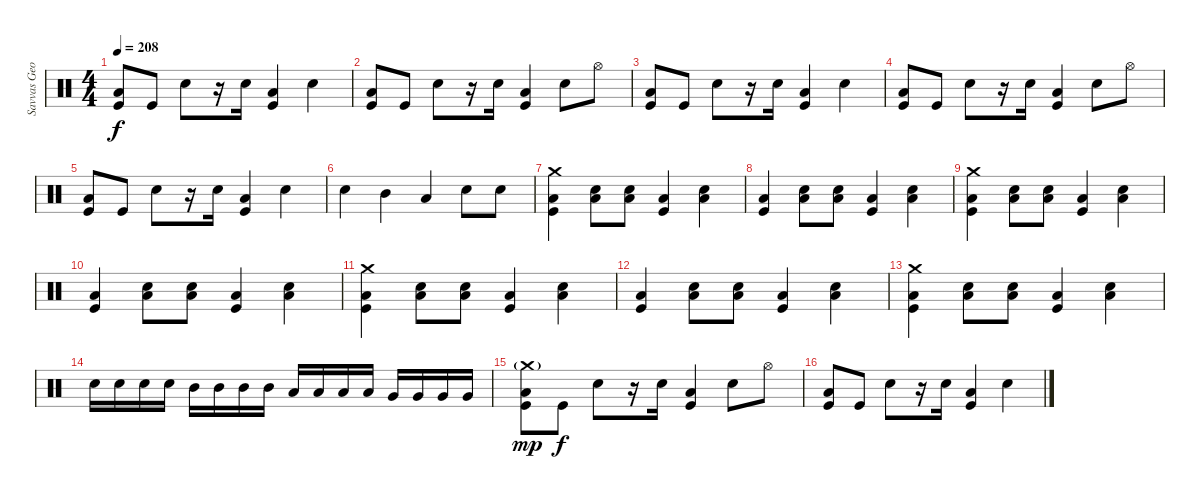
\track ("Savvas Georgiadis" "Savvas Geo") {instrument percussion}
\staff {score}
\articulation defaults
\ts (4 4)
\tempo 208
\clef neutral
\ks c
("Low Tom (hit)" "Kick (hit)").8{dy f} "Kick (hit)".8 "Electric Snare (hit)".8 r.16 "Electric Snare (hit)".16 ("Low Tom (hit)" "Kick (hit)").4 "Electric Snare (hit)".4 |
("Low Tom (hit)" "Kick (hit)").8 "Kick (hit)".8 "Electric Snare (hit)".8 r.16 "Electric Snare (hit)".16 ("Low Tom (hit)" "Kick (hit)").4 "Electric Snare (hit)".8 "Hi-Hat (open)".8 |
("Low Tom (hit)" "Kick (hit)").8 "Kick (hit)".8 "Electric Snare (hit)".8 r.16 "Electric Snare (hit)".16 ("Low Tom (hit)" "Kick (hit)").4 "Electric Snare (hit)".4 |
("Low Tom (hit)" "Kick (hit)").8 "Kick (hit)".8 "Electric Snare (hit)".8 r.16 "Electric Snare (hit)".16 ("Low Tom (hit)" "Kick (hit)").4 "Electric Snare (hit)".8 "Hi-Hat (open)".8 |
("Low Tom (hit)" "Kick (hit)").8 "Kick (hit)".8 "Electric Snare (hit)".8 r.16 "Electric Snare (hit)".16 ("Low Tom (hit)" "Kick (hit)").4 "Electric Snare (hit)".4 |
"Electric Snare (hit)".4 "Mid Tom (hit)".4 "Low Tom (hit)".4 "Electric Snare (hit)".8 "Electric Snare (hit)".8 |
("Crash medium (hit)" "Low Tom (hit)" "Kick (hit)").4 ("Electric Snare (hit)" "Low Tom (hit)").8 ("Electric Snare (hit)" "Low Tom (hit)").8 ("Low Tom (hit)" "Kick (hit)").4 ("Electric Snare (hit)" "Low Tom (hit)").4 |
("Low Tom (hit)" "Kick (hit)").4 ("Electric Snare (hit)" "Low Tom (hit)").8 ("Electric Snare (hit)" "Low Tom (hit)").8 ("Low Tom (hit)" "Kick (hit)").4 ("Electric Snare (hit)" "Low Tom (hit)").4 |
("Crash medium (hit)" "Low Tom (hit)" "Kick (hit)").4 ("Electric Snare (hit)" "Low Tom (hit)").8 ("Electric Snare (hit)" "Low Tom (hit)").8 ("Low Tom (hit)" "Kick (hit)").4 ("Electric Snare (hit)" "Low Tom (hit)").4 |
("Low Tom (hit)" "Kick (hit)").4 ("Electric Snare (hit)" "Low Tom (hit)").8 ("Electric Snare (hit)" "Low Tom (hit)").8 ("Low Tom (hit)" "Kick (hit)").4 ("Electric Snare (hit)" "Low Tom (hit)").4 |
("Crash medium (hit)" "Low Tom (hit)" "Kick (hit)").4 ("Electric Snare (hit)" "Low Tom (hit)").8 ("Electric Snare (hit)" "Low Tom (hit)").8 ("Low Tom (hit)" "Kick (hit)").4 ("Electric Snare (hit)" "Low Tom (hit)").4 |
("Low Tom (hit)" "Kick (hit)").4 ("Electric Snare (hit)" "Low Tom (hit)").8 ("Electric Snare (hit)" "Low Tom (hit)").8 ("Low Tom (hit)" "Kick (hit)").4 ("Electric Snare (hit)" "Low Tom (hit)").4 |
("Crash medium (hit)" "Low Tom (hit)" "Kick (hit)").4 ("Electric Snare (hit)" "Low Tom (hit)").8 ("Electric Snare (hit)" "Low Tom (hit)").8 ("Low Tom (hit)" "Kick (hit)").4 ("Electric Snare (hit)" "Low Tom (hit)").4 |
"Electric Snare (hit)".16 "Electric Snare (hit)".16 "Electric Snare (hit)".16 "Electric Snare (hit)".16 "Mid Tom (hit)".16 "Mid Tom (hit)".16 "Mid Tom (hit)".16 "Mid Tom (hit)".16 "Low Tom (hit)".16 "Low Tom (hit)".16 "Low Tom (hit)".16 "Low Tom (hit)".16 "Very Low Tom (hit)".16 "Very Low Tom (hit)".16 "Very Low Tom (hit)".16 "Very Low Tom (hit)".16 |
("Crash medium (hit)"{g} "Low Tom (hit)" "Kick (hit)").8{dy mp} "Kick (hit)".8{dy f} "Electric Snare (hit)".8 r.16 "Electric Snare (hit)".16 ("Low Tom (hit)" "Kick (hit)").4 "Electric Snare (hit)".8 "Hi-Hat (open)".8 |
("Low Tom (hit)" "Kick (hit)").8 "Kick (hit)".8 "Electric Snare (hit)".8 r.16 "Electric Snare (hit)".16 ("Low Tom (hit)" "Kick (hit)").4 "Electric Snare (hit)".4
